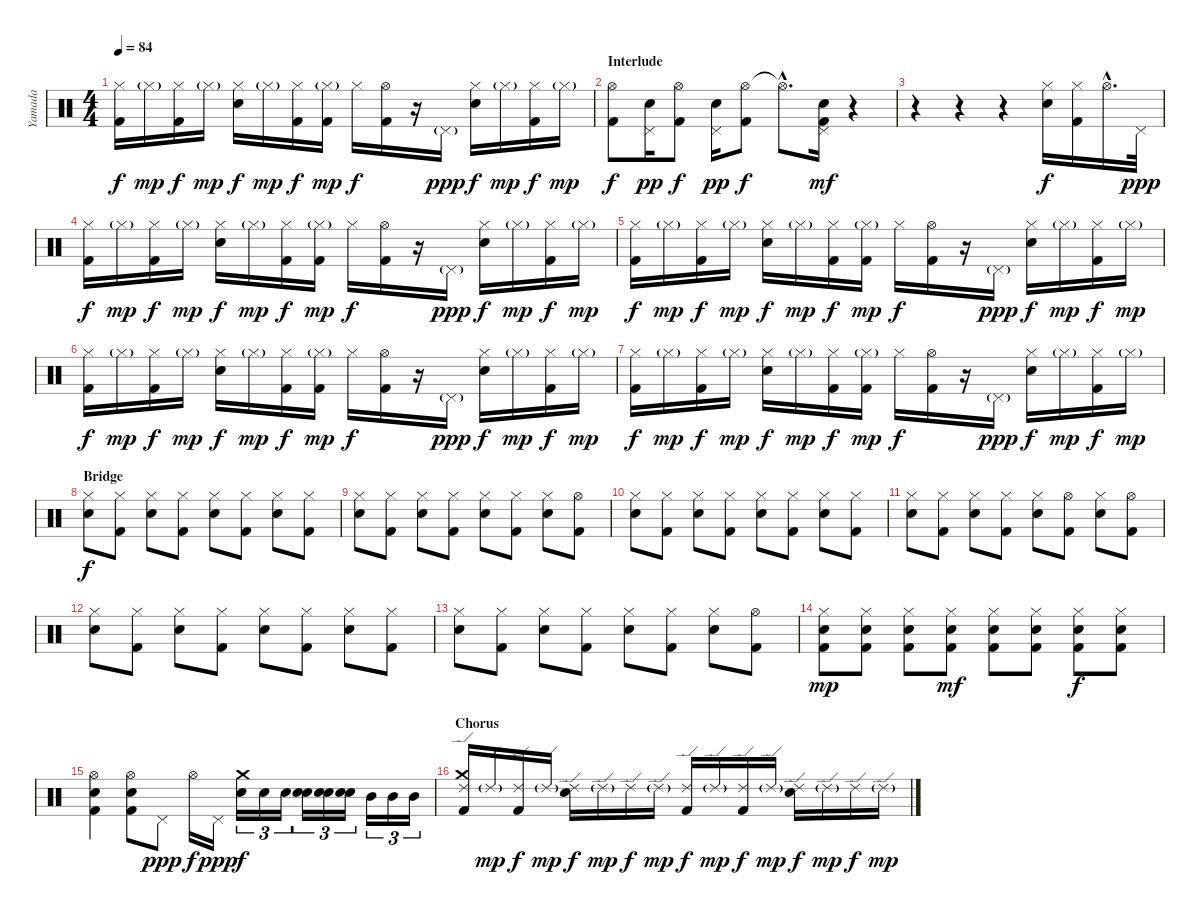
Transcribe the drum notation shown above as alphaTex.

\track ("Yamada" "Yamada") {instrument percussion}
\staff {score}
\articulation defaults
\ts (4 4)
\tempo 84
\clef neutral
\ks c
("Hi-Hat (closed)" "Kick (hit) 2").16{dy f} "Hi-Hat (closed)"{g}.16{dy mp} ("Hi-Hat (closed)" "Kick (hit) 2").16{dy f} "Hi-Hat (closed)"{g}.16{dy mp} ("Hi-Hat (closed)" "Electric Snare (hit)").16{dy f} "Hi-Hat (closed)"{g}.16{dy mp} ("Hi-Hat (closed)" "Kick (hit) 2").16{dy f} ("Hi-Hat (closed)"{g} "Kick (hit) 2").16{dy mp} "Hi-Hat (closed)".16{dy f} ("Hi-Hat (open)" "Kick (hit) 2").16 r.16 "Pedal Hi-Hat (hit)"{g}.16{dy ppp} ("Hi-Hat (closed)" "Electric Snare (hit)").16{dy f} "Hi-Hat (closed)"{g}.16{dy mp} ("Hi-Hat (closed)" "Kick (hit) 2").16{dy f} "Hi-Hat (closed)"{g}.16{dy mp} |
\section ("" "Interlude")
("Hi-Hat (open)" "Kick (hit) 2").8{dy f} ("Pedal Hi-Hat (hit)" "Electric Snare (hit)").16{dy pp} ("Hi-Hat (open)" "Kick (hit) 2").8{dy f} ("Pedal Hi-Hat (hit)" "Electric Snare (hit)").16{dy pp} ("Hi-Hat (open)" "Kick (hit) 2").8{dy f} "Hi-Hat (open)"{hac t}.8{d} ("Pedal Hi-Hat (hit)" "Snare (hit) 2" "Kick (hit) 2").16{dy mf} r.4 |
r.4 r.4 r.4 ("Hi-Hat (closed)" "Electric Snare (hit)").16{dy f} ("Hi-Hat (closed)" "Kick (hit) 2").16 "Hi-Hat (open)"{hac}.16{d} "Pedal Hi-Hat (hit)".32{dy ppp} |
("Hi-Hat (closed)" "Kick (hit) 2").16{dy f} "Hi-Hat (closed)"{g}.16{dy mp} ("Hi-Hat (closed)" "Kick (hit) 2").16{dy f} "Hi-Hat (closed)"{g}.16{dy mp} ("Hi-Hat (closed)" "Electric Snare (hit)").16{dy f} "Hi-Hat (closed)"{g}.16{dy mp} ("Hi-Hat (closed)" "Kick (hit) 2").16{dy f} ("Hi-Hat (closed)"{g} "Kick (hit) 2").16{dy mp} "Hi-Hat (closed)".16{dy f} ("Hi-Hat (open)" "Kick (hit) 2").16 r.16 "Pedal Hi-Hat (hit)"{g}.16{dy ppp} ("Hi-Hat (closed)" "Electric Snare (hit)").16{dy f} "Hi-Hat (closed)"{g}.16{dy mp} ("Hi-Hat (closed)" "Kick (hit) 2").16{dy f} "Hi-Hat (closed)"{g}.16{dy mp} |
("Hi-Hat (closed)" "Kick (hit) 2").16{dy f} "Hi-Hat (closed)"{g}.16{dy mp} ("Hi-Hat (closed)" "Kick (hit) 2").16{dy f} "Hi-Hat (closed)"{g}.16{dy mp} ("Hi-Hat (closed)" "Electric Snare (hit)").16{dy f} "Hi-Hat (closed)"{g}.16{dy mp} ("Hi-Hat (closed)" "Kick (hit) 2").16{dy f} ("Hi-Hat (closed)"{g} "Kick (hit) 2").16{dy mp} "Hi-Hat (closed)".16{dy f} ("Hi-Hat (open)" "Kick (hit) 2").16 r.16 "Pedal Hi-Hat (hit)"{g}.16{dy ppp} ("Hi-Hat (closed)" "Electric Snare (hit)").16{dy f} "Hi-Hat (closed)"{g}.16{dy mp} ("Hi-Hat (closed)" "Kick (hit) 2").16{dy f} "Hi-Hat (closed)"{g}.16{dy mp} |
("Hi-Hat (closed)" "Kick (hit) 2").16{dy f} "Hi-Hat (closed)"{g}.16{dy mp} ("Hi-Hat (closed)" "Kick (hit) 2").16{dy f} "Hi-Hat (closed)"{g}.16{dy mp} ("Hi-Hat (closed)" "Electric Snare (hit)").16{dy f} "Hi-Hat (closed)"{g}.16{dy mp} ("Hi-Hat (closed)" "Kick (hit) 2").16{dy f} ("Hi-Hat (closed)"{g} "Kick (hit) 2").16{dy mp} "Hi-Hat (closed)".16{dy f} ("Hi-Hat (open)" "Kick (hit) 2").16 r.16 "Pedal Hi-Hat (hit)"{g}.16{dy ppp} ("Hi-Hat (closed)" "Electric Snare (hit)").16{dy f} "Hi-Hat (closed)"{g}.16{dy mp} ("Hi-Hat (closed)" "Kick (hit) 2").16{dy f} "Hi-Hat (closed)"{g}.16{dy mp} |
("Hi-Hat (closed)" "Kick (hit) 2").16{dy f} "Hi-Hat (closed)"{g}.16{dy mp} ("Hi-Hat (closed)" "Kick (hit) 2").16{dy f} "Hi-Hat (closed)"{g}.16{dy mp} ("Hi-Hat (closed)" "Electric Snare (hit)").16{dy f} "Hi-Hat (closed)"{g}.16{dy mp} ("Hi-Hat (closed)" "Kick (hit) 2").16{dy f} ("Hi-Hat (closed)"{g} "Kick (hit) 2").16{dy mp} "Hi-Hat (closed)".16{dy f} ("Hi-Hat (open)" "Kick (hit) 2").16 r.16 "Pedal Hi-Hat (hit)"{g}.16{dy ppp} ("Hi-Hat (closed)" "Electric Snare (hit)").16{dy f} "Hi-Hat (closed)"{g}.16{dy mp} ("Hi-Hat (closed)" "Kick (hit) 2").16{dy f} "Hi-Hat (closed)"{g}.16{dy mp} |
\section ("" "Bridge")
("Hi-Hat (closed)" "Electric Snare (hit)").8{dy f} ("Hi-Hat (closed)" "Kick (hit) 2").8 ("Hi-Hat (closed)" "Electric Snare (hit)").8 ("Hi-Hat (closed)" "Kick (hit) 2").8 ("Hi-Hat (closed)" "Electric Snare (hit)").8 ("Hi-Hat (closed)" "Kick (hit) 2").8 ("Hi-Hat (closed)" "Electric Snare (hit)").8 ("Hi-Hat (closed)" "Kick (hit) 2").8 |
("Hi-Hat (closed)" "Electric Snare (hit)").8 ("Hi-Hat (closed)" "Kick (hit) 2").8 ("Hi-Hat (closed)" "Electric Snare (hit)").8 ("Hi-Hat (closed)" "Kick (hit) 2").8 ("Hi-Hat (closed)" "Electric Snare (hit)").8 ("Hi-Hat (closed)" "Kick (hit) 2").8 ("Hi-Hat (closed)" "Electric Snare (hit)").8 ("Hi-Hat (open)" "Kick (hit) 2").8 |
("Hi-Hat (closed)" "Electric Snare (hit)").8 ("Hi-Hat (closed)" "Kick (hit) 2").8 ("Hi-Hat (closed)" "Electric Snare (hit)").8 ("Hi-Hat (closed)" "Kick (hit) 2").8 ("Hi-Hat (closed)" "Electric Snare (hit)").8 ("Hi-Hat (closed)" "Kick (hit) 2").8 ("Hi-Hat (closed)" "Electric Snare (hit)").8 ("Hi-Hat (closed)" "Kick (hit) 2").8 |
("Hi-Hat (closed)" "Electric Snare (hit)").8 ("Hi-Hat (closed)" "Kick (hit) 2").8 ("Hi-Hat (closed)" "Electric Snare (hit)").8 ("Hi-Hat (closed)" "Kick (hit) 2").8 ("Hi-Hat (closed)" "Electric Snare (hit)").8 ("Hi-Hat (open)" "Kick (hit) 2").8 ("Hi-Hat (closed)" "Electric Snare (hit)").8 ("Hi-Hat (open)" "Kick (hit) 2").8 |
("Hi-Hat (closed)" "Electric Snare (hit)").8 ("Hi-Hat (closed)" "Kick (hit) 2").8 ("Hi-Hat (closed)" "Electric Snare (hit)").8 ("Hi-Hat (closed)" "Kick (hit) 2").8 ("Hi-Hat (closed)" "Electric Snare (hit)").8 ("Hi-Hat (closed)" "Kick (hit) 2").8 ("Hi-Hat (closed)" "Electric Snare (hit)").8 ("Hi-Hat (closed)" "Kick (hit) 2").8 |
("Hi-Hat (closed)" "Electric Snare (hit)").8 ("Hi-Hat (closed)" "Kick (hit) 2").8 ("Hi-Hat (closed)" "Electric Snare (hit)").8 ("Hi-Hat (closed)" "Kick (hit) 2").8 ("Hi-Hat (closed)" "Electric Snare (hit)").8 ("Hi-Hat (closed)" "Kick (hit) 2").8 ("Hi-Hat (closed)" "Electric Snare (hit)").8 ("Hi-Hat (open)" "Kick (hit) 2").8 |
("Hi-Hat (closed)" "Electric Snare (hit)" "Kick (hit) 2").8{dy mp} ("Hi-Hat (closed)" "Electric Snare (hit)" "Kick (hit) 2").8 ("Hi-Hat (closed)" "Electric Snare (hit)" "Kick (hit) 2").8 ("Hi-Hat (closed)" "Electric Snare (hit)" "Kick (hit) 2").8{dy mf} ("Hi-Hat (closed)" "Electric Snare (hit)" "Kick (hit) 2").8 ("Hi-Hat (closed)" "Electric Snare (hit)" "Kick (hit) 2").8 ("Hi-Hat (closed)" "Electric Snare (hit)" "Kick (hit) 2").8{dy f} ("Hi-Hat (closed)" "Electric Snare (hit)" "Kick (hit) 2").8 |
("Hi-Hat (open)" "Electric Snare (hit)" "Kick (hit) 2").4 ("Hi-Hat (open)" "Electric Snare (hit)" "Kick (hit) 2").8 "Pedal Hi-Hat (hit)".8{dy ppp} "Hi-Hat (open)".16{dy f} "Pedal Hi-Hat (hit)".16{dy ppp} ("Crash medium (hit)" "Electric Snare (hit)").16{tu (3 2) dy f} "Electric Snare (hit)".16{tu (3 2)} "Electric Snare (hit)".16{tu (3 2)} ("Electric Snare (hit)" "Snare (hit) 2").16{tu (3 2)} ("Electric Snare (hit)" "Snare (hit) 2").16{tu (3 2)} ("Electric Snare (hit)" "Snare (hit) 2").16{tu (3 2)} "Mid Tom (hit)".16{tu (3 2)} "Mid Tom (hit)".16{tu (3 2)} "Mid Tom (hit)".16{tu (3 2)} |
\section ("" "Chorus")
("Ride (edge) 2" "Crash medium (hit)" "Kick (hit) 2").16 "Ride (edge) 2"{g}.16{dy mp} ("Ride (edge) 2" "Kick (hit) 2").16{dy f} "Ride (edge) 2"{g}.16{dy mp} ("Ride (edge) 2" "Electric Snare (hit)").16{dy f} "Ride (edge) 2"{g}.16{dy mp} "Ride (edge) 2".16{dy f} "Ride (edge) 2"{g}.16{dy mp} ("Ride (edge) 2" "Kick (hit) 2").16{dy f} "Ride (edge) 2"{g}.16{dy mp} ("Ride (edge) 2" "Kick (hit) 2").16{dy f} "Ride (edge) 2"{g}.16{dy mp} ("Ride (edge) 2" "Electric Snare (hit)").16{dy f} "Ride (edge) 2"{g}.16{dy mp} "Ride (edge) 2".16{dy f} "Ride (edge) 2"{g}.16{dy mp}
